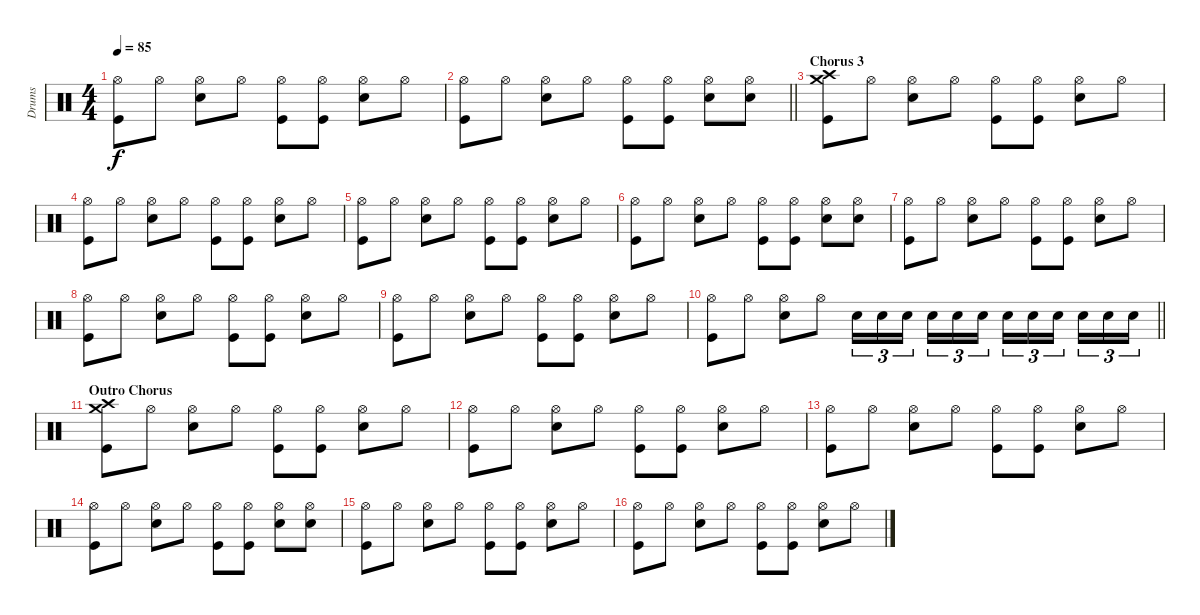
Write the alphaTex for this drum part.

\track ("Drums" "Drums") {instrument percussion}
\staff {score}
\articulation defaults
\ts (4 4)
\tempo 85
\clef neutral
\ks c
("Hi-Hat (open)" "Kick (hit)").8{dy f} "Hi-Hat (open)".8 ("Hi-Hat (open)" "Snare (hit) 2").8 "Hi-Hat (open)".8 ("Hi-Hat (open)" "Kick (hit)").8 ("Hi-Hat (open)" "Kick (hit)").8 ("Hi-Hat (open)" "Snare (hit) 2").8 "Hi-Hat (open)".8 |
\barLineRight lightlight
("Hi-Hat (open)" "Kick (hit)").8 "Hi-Hat (open)".8 ("Hi-Hat (open)" "Snare (hit) 2").8 "Hi-Hat (open)".8 ("Hi-Hat (open)" "Kick (hit)").8 ("Hi-Hat (open)" "Kick (hit)").8 ("Hi-Hat (open)" "Snare (hit) 2").8 ("Hi-Hat (open)" "Snare (hit) 2").8 |
\section ("" "Chorus 3")
("Crash high (hit)" "Crash medium (hit)" "Kick (hit)").8 "Hi-Hat (open)".8 ("Hi-Hat (open)" "Snare (hit) 2").8 "Hi-Hat (open)".8 ("Hi-Hat (open)" "Kick (hit)").8 ("Hi-Hat (open)" "Kick (hit)").8 ("Hi-Hat (open)" "Snare (hit) 2").8 "Hi-Hat (open)".8 |
("Hi-Hat (open)" "Kick (hit)").8 "Hi-Hat (open)".8 ("Hi-Hat (open)" "Snare (hit) 2").8 "Hi-Hat (open)".8 ("Hi-Hat (open)" "Kick (hit)").8 ("Hi-Hat (open)" "Kick (hit)").8 ("Hi-Hat (open)" "Snare (hit) 2").8 "Hi-Hat (open)".8 |
("Hi-Hat (open)" "Kick (hit)").8 "Hi-Hat (open)".8 ("Hi-Hat (open)" "Snare (hit) 2").8 "Hi-Hat (open)".8 ("Hi-Hat (open)" "Kick (hit)").8 ("Hi-Hat (open)" "Kick (hit)").8 ("Hi-Hat (open)" "Snare (hit) 2").8 "Hi-Hat (open)".8 |
("Hi-Hat (open)" "Kick (hit)").8 "Hi-Hat (open)".8 ("Hi-Hat (open)" "Snare (hit) 2").8 "Hi-Hat (open)".8 ("Hi-Hat (open)" "Kick (hit)").8 ("Hi-Hat (open)" "Kick (hit)").8 ("Hi-Hat (open)" "Snare (hit) 2").8 ("Hi-Hat (open)" "Snare (hit) 2").8 |
("Hi-Hat (open)" "Kick (hit)").8 "Hi-Hat (open)".8 ("Hi-Hat (open)" "Snare (hit) 2").8 "Hi-Hat (open)".8 ("Hi-Hat (open)" "Kick (hit)").8 ("Hi-Hat (open)" "Kick (hit)").8 ("Hi-Hat (open)" "Snare (hit) 2").8 "Hi-Hat (open)".8 |
("Hi-Hat (open)" "Kick (hit)").8 "Hi-Hat (open)".8 ("Hi-Hat (open)" "Snare (hit) 2").8 "Hi-Hat (open)".8 ("Hi-Hat (open)" "Kick (hit)").8 ("Hi-Hat (open)" "Kick (hit)").8 ("Hi-Hat (open)" "Snare (hit) 2").8 "Hi-Hat (open)".8 |
("Hi-Hat (open)" "Kick (hit)").8 "Hi-Hat (open)".8 ("Hi-Hat (open)" "Snare (hit) 2").8 "Hi-Hat (open)".8 ("Hi-Hat (open)" "Kick (hit)").8 ("Hi-Hat (open)" "Kick (hit)").8 ("Hi-Hat (open)" "Snare (hit) 2").8 "Hi-Hat (open)".8 |
\barLineRight lightlight
("Hi-Hat (open)" "Kick (hit)").8 "Hi-Hat (open)".8 ("Hi-Hat (open)" "Snare (hit) 2").8 "Hi-Hat (open)".8 "Snare (hit) 2".16{tu (3 2)} "Snare (hit) 2".16{tu (3 2)} "Snare (hit) 2".16{tu (3 2) beam splitsecondary} "Snare (hit) 2".16{tu (3 2)} "Snare (hit) 2".16{tu (3 2)} "Snare (hit) 2".16{tu (3 2)} "Snare (hit) 2".16{tu (3 2)} "Snare (hit) 2".16{tu (3 2)} "Snare (hit) 2".16{tu (3 2) beam splitsecondary} "Snare (hit) 2".16{tu (3 2)} "Snare (hit) 2".16{tu (3 2)} "Snare (hit) 2".16{tu (3 2)} |
\section ("" "Outro Chorus")
("Crash high (hit)" "Crash medium (hit)" "Kick (hit)").8 "Hi-Hat (open)".8 ("Hi-Hat (open)" "Snare (hit) 2").8 "Hi-Hat (open)".8 ("Hi-Hat (open)" "Kick (hit)").8 ("Hi-Hat (open)" "Kick (hit)").8 ("Hi-Hat (open)" "Snare (hit) 2").8 "Hi-Hat (open)".8 |
("Hi-Hat (open)" "Kick (hit)").8 "Hi-Hat (open)".8 ("Hi-Hat (open)" "Snare (hit) 2").8 "Hi-Hat (open)".8 ("Hi-Hat (open)" "Kick (hit)").8 ("Hi-Hat (open)" "Kick (hit)").8 ("Hi-Hat (open)" "Snare (hit) 2").8 "Hi-Hat (open)".8 |
("Hi-Hat (open)" "Kick (hit)").8 "Hi-Hat (open)".8 ("Hi-Hat (open)" "Snare (hit) 2").8 "Hi-Hat (open)".8 ("Hi-Hat (open)" "Kick (hit)").8 ("Hi-Hat (open)" "Kick (hit)").8 ("Hi-Hat (open)" "Snare (hit) 2").8 "Hi-Hat (open)".8 |
("Hi-Hat (open)" "Kick (hit)").8 "Hi-Hat (open)".8 ("Hi-Hat (open)" "Snare (hit) 2").8 "Hi-Hat (open)".8 ("Hi-Hat (open)" "Kick (hit)").8 ("Hi-Hat (open)" "Kick (hit)").8 ("Hi-Hat (open)" "Snare (hit) 2").8 ("Hi-Hat (open)" "Snare (hit) 2").8 |
("Hi-Hat (open)" "Kick (hit)").8 "Hi-Hat (open)".8 ("Hi-Hat (open)" "Snare (hit) 2").8 "Hi-Hat (open)".8 ("Hi-Hat (open)" "Kick (hit)").8 ("Hi-Hat (open)" "Kick (hit)").8 ("Hi-Hat (open)" "Snare (hit) 2").8 "Hi-Hat (open)".8 |
("Hi-Hat (open)" "Kick (hit)").8 "Hi-Hat (open)".8 ("Hi-Hat (open)" "Snare (hit) 2").8 "Hi-Hat (open)".8 ("Hi-Hat (open)" "Kick (hit)").8 ("Hi-Hat (open)" "Kick (hit)").8 ("Hi-Hat (open)" "Snare (hit) 2").8 "Hi-Hat (open)".8
